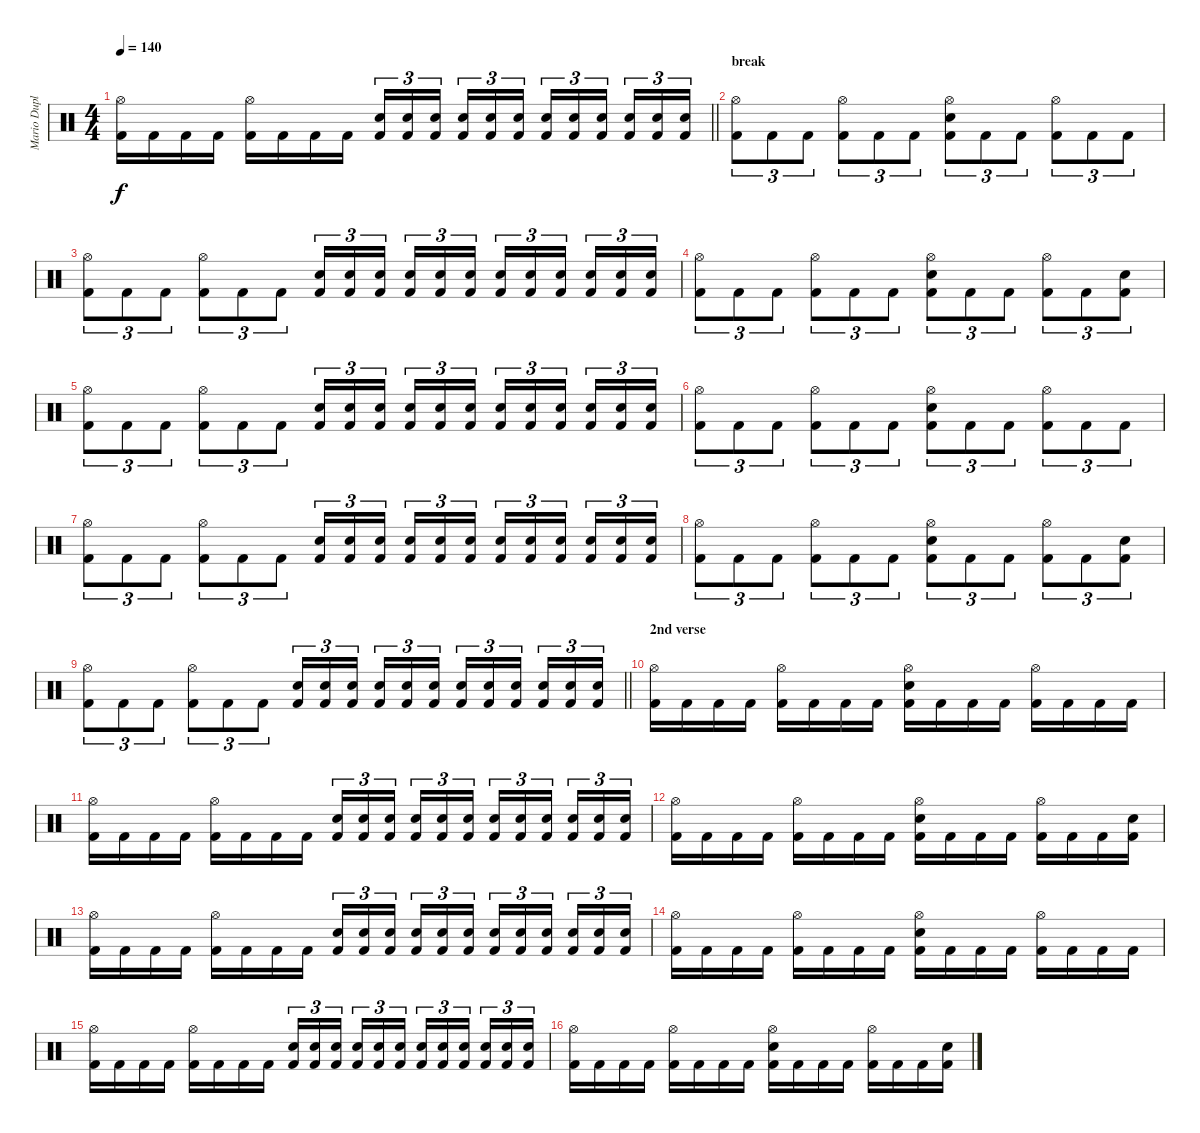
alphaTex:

\track ("Mario Duplantier" "Mario Dupl") {instrument percussion}
\staff {score}
\articulation defaults
\ts (4 4)
\tempo 140
\clef neutral
\barLineRight lightlight
\ks c
("Hi-Hat (open)" "Kick (hit) 2").16{dy f} "Kick (hit) 2".16 "Kick (hit) 2".16 "Kick (hit) 2".16 ("Hi-Hat (open)" "Kick (hit) 2").16 "Kick (hit) 2".16 "Kick (hit) 2".16 "Kick (hit) 2".16 ("Snare (hit) 2" "Kick (hit) 2").16{tu (3 2)} ("Snare (hit) 2" "Kick (hit) 2").16{tu (3 2)} ("Snare (hit) 2" "Kick (hit) 2").16{tu (3 2) beam splitsecondary} ("Snare (hit) 2" "Kick (hit) 2").16{tu (3 2)} ("Snare (hit) 2" "Kick (hit) 2").16{tu (3 2)} ("Snare (hit) 2" "Kick (hit) 2").16{tu (3 2)} ("Snare (hit) 2" "Kick (hit) 2").16{tu (3 2)} ("Snare (hit) 2" "Kick (hit) 2").16{tu (3 2)} ("Snare (hit) 2" "Kick (hit) 2").16{tu (3 2) beam splitsecondary} ("Snare (hit) 2" "Kick (hit) 2").16{tu (3 2)} ("Snare (hit) 2" "Kick (hit) 2").16{tu (3 2)} ("Snare (hit) 2" "Kick (hit) 2").16{tu (3 2)} |
\section ("" "break")
("Hi-Hat (open)" "Kick (hit) 2").8{tu (3 2)} "Kick (hit) 2".8{tu (3 2)} "Kick (hit) 2".8{tu (3 2)} ("Hi-Hat (open)" "Kick (hit) 2").8{tu (3 2)} "Kick (hit) 2".8{tu (3 2)} "Kick (hit) 2".8{tu (3 2)} ("Hi-Hat (open)" "Electric Snare (hit)" "Kick (hit) 2").8{tu (3 2)} "Kick (hit) 2".8{tu (3 2)} "Kick (hit) 2".8{tu (3 2)} ("Hi-Hat (open)" "Kick (hit) 2").8{tu (3 2)} "Kick (hit) 2".8{tu (3 2)} "Kick (hit) 2".8{tu (3 2)} |
("Hi-Hat (open)" "Kick (hit) 2").8{tu (3 2)} "Kick (hit) 2".8{tu (3 2)} "Kick (hit) 2".8{tu (3 2)} ("Hi-Hat (open)" "Kick (hit) 2").8{tu (3 2)} "Kick (hit) 2".8{tu (3 2)} "Kick (hit) 2".8{tu (3 2)} ("Electric Snare (hit)" "Kick (hit) 2").16{tu (3 2)} ("Electric Snare (hit)" "Kick (hit) 2").16{tu (3 2)} ("Electric Snare (hit)" "Kick (hit) 2").16{tu (3 2) beam splitsecondary} ("Electric Snare (hit)" "Kick (hit) 2").16{tu (3 2)} ("Electric Snare (hit)" "Kick (hit) 2").16{tu (3 2)} ("Electric Snare (hit)" "Kick (hit) 2").16{tu (3 2)} ("Electric Snare (hit)" "Kick (hit) 2").16{tu (3 2)} ("Electric Snare (hit)" "Kick (hit) 2").16{tu (3 2)} ("Electric Snare (hit)" "Kick (hit) 2").16{tu (3 2) beam splitsecondary} ("Electric Snare (hit)" "Kick (hit) 2").16{tu (3 2)} ("Electric Snare (hit)" "Kick (hit) 2").16{tu (3 2)} ("Electric Snare (hit)" "Kick (hit) 2").16{tu (3 2)} |
("Hi-Hat (open)" "Kick (hit) 2").8{tu (3 2)} "Kick (hit) 2".8{tu (3 2)} "Kick (hit) 2".8{tu (3 2)} ("Hi-Hat (open)" "Kick (hit) 2").8{tu (3 2)} "Kick (hit) 2".8{tu (3 2)} "Kick (hit) 2".8{tu (3 2)} ("Hi-Hat (open)" "Electric Snare (hit)" "Kick (hit) 2").8{tu (3 2)} "Kick (hit) 2".8{tu (3 2)} "Kick (hit) 2".8{tu (3 2)} ("Hi-Hat (open)" "Kick (hit) 2").8{tu (3 2)} "Kick (hit) 2".8{tu (3 2)} ("Electric Snare (hit)" "Kick (hit) 2").8{tu (3 2)} |
("Hi-Hat (open)" "Kick (hit) 2").8{tu (3 2)} "Kick (hit) 2".8{tu (3 2)} "Kick (hit) 2".8{tu (3 2)} ("Hi-Hat (open)" "Kick (hit) 2").8{tu (3 2)} "Kick (hit) 2".8{tu (3 2)} "Kick (hit) 2".8{tu (3 2)} ("Electric Snare (hit)" "Kick (hit) 2").16{tu (3 2)} ("Electric Snare (hit)" "Kick (hit) 2").16{tu (3 2)} ("Electric Snare (hit)" "Kick (hit) 2").16{tu (3 2) beam splitsecondary} ("Electric Snare (hit)" "Kick (hit) 2").16{tu (3 2)} ("Electric Snare (hit)" "Kick (hit) 2").16{tu (3 2)} ("Electric Snare (hit)" "Kick (hit) 2").16{tu (3 2)} ("Electric Snare (hit)" "Kick (hit) 2").16{tu (3 2)} ("Electric Snare (hit)" "Kick (hit) 2").16{tu (3 2)} ("Electric Snare (hit)" "Kick (hit) 2").16{tu (3 2) beam splitsecondary} ("Electric Snare (hit)" "Kick (hit) 2").16{tu (3 2)} ("Electric Snare (hit)" "Kick (hit) 2").16{tu (3 2)} ("Electric Snare (hit)" "Kick (hit) 2").16{tu (3 2)} |
("Hi-Hat (open)" "Kick (hit) 2").8{tu (3 2)} "Kick (hit) 2".8{tu (3 2)} "Kick (hit) 2".8{tu (3 2)} ("Hi-Hat (open)" "Kick (hit) 2").8{tu (3 2)} "Kick (hit) 2".8{tu (3 2)} "Kick (hit) 2".8{tu (3 2)} ("Hi-Hat (open)" "Electric Snare (hit)" "Kick (hit) 2").8{tu (3 2)} "Kick (hit) 2".8{tu (3 2)} "Kick (hit) 2".8{tu (3 2)} ("Hi-Hat (open)" "Kick (hit) 2").8{tu (3 2)} "Kick (hit) 2".8{tu (3 2)} "Kick (hit) 2".8{tu (3 2)} |
("Hi-Hat (open)" "Kick (hit) 2").8{tu (3 2)} "Kick (hit) 2".8{tu (3 2)} "Kick (hit) 2".8{tu (3 2)} ("Hi-Hat (open)" "Kick (hit) 2").8{tu (3 2)} "Kick (hit) 2".8{tu (3 2)} "Kick (hit) 2".8{tu (3 2)} ("Electric Snare (hit)" "Kick (hit) 2").16{tu (3 2)} ("Electric Snare (hit)" "Kick (hit) 2").16{tu (3 2)} ("Electric Snare (hit)" "Kick (hit) 2").16{tu (3 2) beam splitsecondary} ("Electric Snare (hit)" "Kick (hit) 2").16{tu (3 2)} ("Electric Snare (hit)" "Kick (hit) 2").16{tu (3 2)} ("Electric Snare (hit)" "Kick (hit) 2").16{tu (3 2)} ("Electric Snare (hit)" "Kick (hit) 2").16{tu (3 2)} ("Electric Snare (hit)" "Kick (hit) 2").16{tu (3 2)} ("Electric Snare (hit)" "Kick (hit) 2").16{tu (3 2) beam splitsecondary} ("Electric Snare (hit)" "Kick (hit) 2").16{tu (3 2)} ("Electric Snare (hit)" "Kick (hit) 2").16{tu (3 2)} ("Electric Snare (hit)" "Kick (hit) 2").16{tu (3 2)} |
("Hi-Hat (open)" "Kick (hit) 2").8{tu (3 2)} "Kick (hit) 2".8{tu (3 2)} "Kick (hit) 2".8{tu (3 2)} ("Hi-Hat (open)" "Kick (hit) 2").8{tu (3 2)} "Kick (hit) 2".8{tu (3 2)} "Kick (hit) 2".8{tu (3 2)} ("Hi-Hat (open)" "Electric Snare (hit)" "Kick (hit) 2").8{tu (3 2)} "Kick (hit) 2".8{tu (3 2)} "Kick (hit) 2".8{tu (3 2)} ("Hi-Hat (open)" "Kick (hit) 2").8{tu (3 2)} "Kick (hit) 2".8{tu (3 2)} ("Electric Snare (hit)" "Kick (hit) 2").8{tu (3 2)} |
\barLineRight lightlight
("Hi-Hat (open)" "Kick (hit) 2").8{tu (3 2)} "Kick (hit) 2".8{tu (3 2)} "Kick (hit) 2".8{tu (3 2)} ("Hi-Hat (open)" "Kick (hit) 2").8{tu (3 2)} "Kick (hit) 2".8{tu (3 2)} "Kick (hit) 2".8{tu (3 2)} ("Electric Snare (hit)" "Kick (hit) 2").16{tu (3 2)} ("Electric Snare (hit)" "Kick (hit) 2").16{tu (3 2)} ("Electric Snare (hit)" "Kick (hit) 2").16{tu (3 2) beam splitsecondary} ("Electric Snare (hit)" "Kick (hit) 2").16{tu (3 2)} ("Electric Snare (hit)" "Kick (hit) 2").16{tu (3 2)} ("Electric Snare (hit)" "Kick (hit) 2").16{tu (3 2)} ("Electric Snare (hit)" "Kick (hit) 2").16{tu (3 2)} ("Electric Snare (hit)" "Kick (hit) 2").16{tu (3 2)} ("Electric Snare (hit)" "Kick (hit) 2").16{tu (3 2) beam splitsecondary} ("Electric Snare (hit)" "Kick (hit) 2").16{tu (3 2)} ("Electric Snare (hit)" "Kick (hit) 2").16{tu (3 2)} ("Electric Snare (hit)" "Kick (hit) 2").16{tu (3 2)} |
\section ("" "2nd verse")
("Hi-Hat (open)" "Kick (hit) 2").16 "Kick (hit) 2".16 "Kick (hit) 2".16 "Kick (hit) 2".16 ("Hi-Hat (open)" "Kick (hit) 2").16 "Kick (hit) 2".16 "Kick (hit) 2".16 "Kick (hit) 2".16 ("Hi-Hat (open)" "Electric Snare (hit)" "Kick (hit) 2").16 "Kick (hit) 2".16 "Kick (hit) 2".16 "Kick (hit) 2".16 ("Hi-Hat (open)" "Kick (hit) 2").16 "Kick (hit) 2".16 "Kick (hit) 2".16 "Kick (hit) 2".16 |
("Hi-Hat (open)" "Kick (hit) 2").16 "Kick (hit) 2".16 "Kick (hit) 2".16 "Kick (hit) 2".16 ("Hi-Hat (open)" "Kick (hit) 2").16 "Kick (hit) 2".16 "Kick (hit) 2".16 "Kick (hit) 2".16 ("Snare (hit) 2" "Kick (hit) 2").16{tu (3 2)} ("Snare (hit) 2" "Kick (hit) 2").16{tu (3 2)} ("Snare (hit) 2" "Kick (hit) 2").16{tu (3 2) beam splitsecondary} ("Snare (hit) 2" "Kick (hit) 2").16{tu (3 2)} ("Snare (hit) 2" "Kick (hit) 2").16{tu (3 2)} ("Snare (hit) 2" "Kick (hit) 2").16{tu (3 2)} ("Snare (hit) 2" "Kick (hit) 2").16{tu (3 2)} ("Snare (hit) 2" "Kick (hit) 2").16{tu (3 2)} ("Snare (hit) 2" "Kick (hit) 2").16{tu (3 2) beam splitsecondary} ("Snare (hit) 2" "Kick (hit) 2").16{tu (3 2)} ("Snare (hit) 2" "Kick (hit) 2").16{tu (3 2)} ("Snare (hit) 2" "Kick (hit) 2").16{tu (3 2)} |
("Hi-Hat (open)" "Kick (hit) 2").16 "Kick (hit) 2".16 "Kick (hit) 2".16 "Kick (hit) 2".16 ("Hi-Hat (open)" "Kick (hit) 2").16 "Kick (hit) 2".16 "Kick (hit) 2".16 "Kick (hit) 2".16 ("Hi-Hat (open)" "Electric Snare (hit)" "Kick (hit) 2").16 "Kick (hit) 2".16 "Kick (hit) 2".16 "Kick (hit) 2".16 ("Hi-Hat (open)" "Kick (hit) 2").16 "Kick (hit) 2".16 "Kick (hit) 2".16 ("Electric Snare (hit)" "Kick (hit) 2").16 |
("Hi-Hat (open)" "Kick (hit) 2").16 "Kick (hit) 2".16 "Kick (hit) 2".16 "Kick (hit) 2".16 ("Hi-Hat (open)" "Kick (hit) 2").16 "Kick (hit) 2".16 "Kick (hit) 2".16 "Kick (hit) 2".16 ("Snare (hit) 2" "Kick (hit) 2").16{tu (3 2)} ("Snare (hit) 2" "Kick (hit) 2").16{tu (3 2)} ("Snare (hit) 2" "Kick (hit) 2").16{tu (3 2) beam splitsecondary} ("Snare (hit) 2" "Kick (hit) 2").16{tu (3 2)} ("Snare (hit) 2" "Kick (hit) 2").16{tu (3 2)} ("Snare (hit) 2" "Kick (hit) 2").16{tu (3 2)} ("Snare (hit) 2" "Kick (hit) 2").16{tu (3 2)} ("Snare (hit) 2" "Kick (hit) 2").16{tu (3 2)} ("Snare (hit) 2" "Kick (hit) 2").16{tu (3 2) beam splitsecondary} ("Snare (hit) 2" "Kick (hit) 2").16{tu (3 2)} ("Snare (hit) 2" "Kick (hit) 2").16{tu (3 2)} ("Snare (hit) 2" "Kick (hit) 2").16{tu (3 2)} |
("Hi-Hat (open)" "Kick (hit) 2").16 "Kick (hit) 2".16 "Kick (hit) 2".16 "Kick (hit) 2".16 ("Hi-Hat (open)" "Kick (hit) 2").16 "Kick (hit) 2".16 "Kick (hit) 2".16 "Kick (hit) 2".16 ("Hi-Hat (open)" "Electric Snare (hit)" "Kick (hit) 2").16 "Kick (hit) 2".16 "Kick (hit) 2".16 "Kick (hit) 2".16 ("Hi-Hat (open)" "Kick (hit) 2").16 "Kick (hit) 2".16 "Kick (hit) 2".16 "Kick (hit) 2".16 |
("Hi-Hat (open)" "Kick (hit) 2").16 "Kick (hit) 2".16 "Kick (hit) 2".16 "Kick (hit) 2".16 ("Hi-Hat (open)" "Kick (hit) 2").16 "Kick (hit) 2".16 "Kick (hit) 2".16 "Kick (hit) 2".16 ("Snare (hit) 2" "Kick (hit) 2").16{tu (3 2)} ("Snare (hit) 2" "Kick (hit) 2").16{tu (3 2)} ("Snare (hit) 2" "Kick (hit) 2").16{tu (3 2) beam splitsecondary} ("Snare (hit) 2" "Kick (hit) 2").16{tu (3 2)} ("Snare (hit) 2" "Kick (hit) 2").16{tu (3 2)} ("Snare (hit) 2" "Kick (hit) 2").16{tu (3 2)} ("Snare (hit) 2" "Kick (hit) 2").16{tu (3 2)} ("Snare (hit) 2" "Kick (hit) 2").16{tu (3 2)} ("Snare (hit) 2" "Kick (hit) 2").16{tu (3 2) beam splitsecondary} ("Snare (hit) 2" "Kick (hit) 2").16{tu (3 2)} ("Snare (hit) 2" "Kick (hit) 2").16{tu (3 2)} ("Snare (hit) 2" "Kick (hit) 2").16{tu (3 2)} |
("Hi-Hat (open)" "Kick (hit) 2").16 "Kick (hit) 2".16 "Kick (hit) 2".16 "Kick (hit) 2".16 ("Hi-Hat (open)" "Kick (hit) 2").16 "Kick (hit) 2".16 "Kick (hit) 2".16 "Kick (hit) 2".16 ("Hi-Hat (open)" "Electric Snare (hit)" "Kick (hit) 2").16 "Kick (hit) 2".16 "Kick (hit) 2".16 "Kick (hit) 2".16 ("Hi-Hat (open)" "Kick (hit) 2").16 "Kick (hit) 2".16 "Kick (hit) 2".16 ("Electric Snare (hit)" "Kick (hit) 2").16
